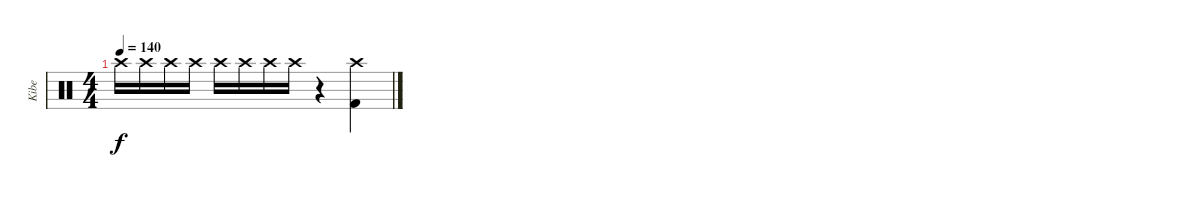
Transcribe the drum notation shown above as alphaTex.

\track ("Kibe" "Kibe") {instrument percussion}
\staff {score}
\articulation defaults
\ts (4 4)
\tempo 140
\clef neutral
\ks c "Crash high (hit)".16{dy f volume 8} "Crash high (hit)".16 "Crash high (hit)".16{volume 10} "Crash high (hit)".16 "Crash high (hit)".16{volume 14} "Crash high (hit)".16 "Crash high (hit)".16{volume 16} "Crash high (hit)".16
r.4 ("Kick (hit) 2" "Crash high (hit)").4
